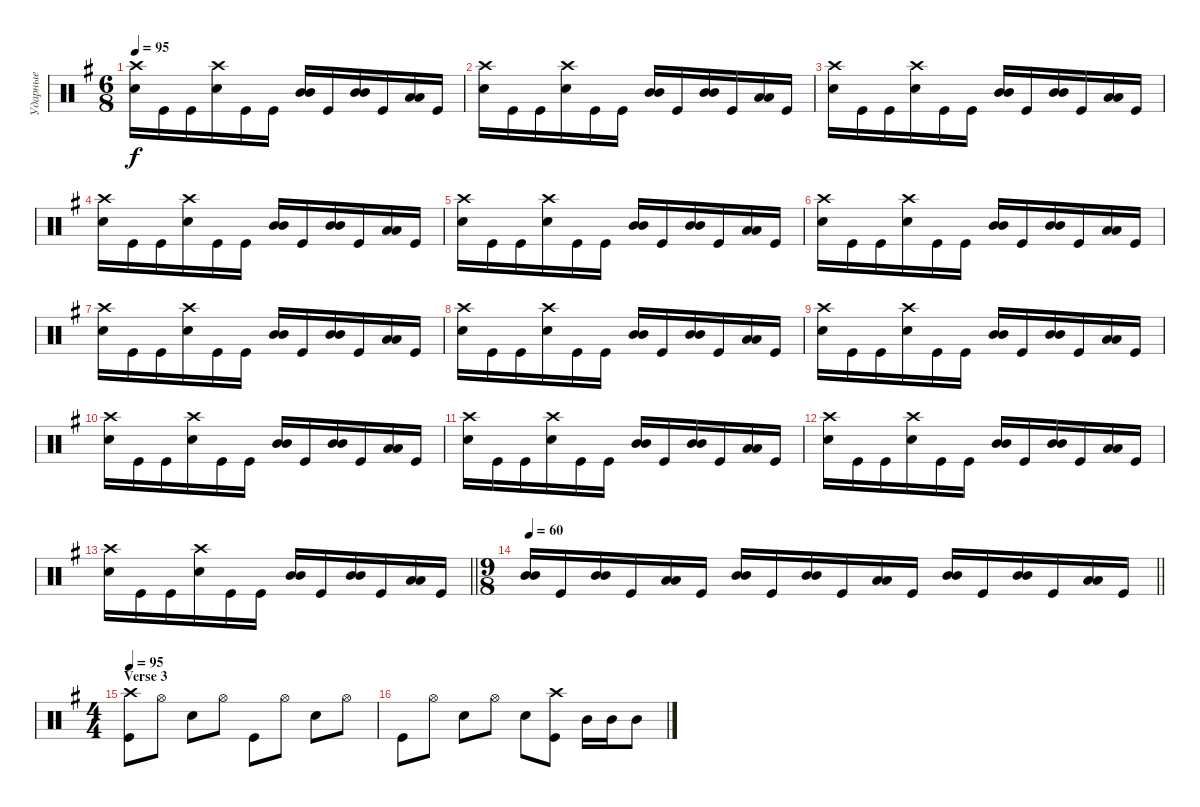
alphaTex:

\track ("Ударные" "Ударные") {instrument percussion}
\staff {score}
\articulation defaults
\ts (6 8)
\tempo 95
\clef neutral
\ks eminor
("Snare (hit) 2" "Crash high (hit)").16{dy f} "Kick (hit)".16 "Kick (hit)".16 ("Snare (hit) 2" "Crash high (hit)").16 "Kick (hit)".16 "Kick (hit)".16 ("Mid Tom (hit)" "Mid Tom (hit)").16{bd 240} "Kick (hit)".16 ("Mid Tom (hit)" "Mid Tom (hit)").16{bd 240} "Kick (hit)".16 ("Low Tom (hit)" "Low Tom (hit)").16{bd 240} "Kick (hit)".16 |
("Snare (hit) 2" "Crash high (hit)").16 "Kick (hit)".16 "Kick (hit)".16 ("Snare (hit) 2" "Crash high (hit)").16 "Kick (hit)".16 "Kick (hit)".16 ("Mid Tom (hit)" "Mid Tom (hit)").16{bd 240} "Kick (hit)".16 ("Mid Tom (hit)" "Mid Tom (hit)").16{bd 240} "Kick (hit)".16 ("Low Tom (hit)" "Low Tom (hit)").16{bd 240} "Kick (hit)".16 |
("Snare (hit) 2" "Crash high (hit)").16 "Kick (hit)".16 "Kick (hit)".16 ("Snare (hit) 2" "Crash high (hit)").16 "Kick (hit)".16 "Kick (hit)".16 ("Mid Tom (hit)" "Mid Tom (hit)").16{bd 240} "Kick (hit)".16 ("Mid Tom (hit)" "Mid Tom (hit)").16{bd 240} "Kick (hit)".16 ("Low Tom (hit)" "Low Tom (hit)").16{bd 240} "Kick (hit)".16 |
("Snare (hit) 2" "Crash high (hit)").16 "Kick (hit)".16 "Kick (hit)".16 ("Snare (hit) 2" "Crash high (hit)").16 "Kick (hit)".16 "Kick (hit)".16 ("Mid Tom (hit)" "Mid Tom (hit)").16{bd 240} "Kick (hit)".16 ("Mid Tom (hit)" "Mid Tom (hit)").16{bd 240} "Kick (hit)".16 ("Low Tom (hit)" "Low Tom (hit)").16{bd 240} "Kick (hit)".16 |
("Snare (hit) 2" "Crash high (hit)").16 "Kick (hit)".16 "Kick (hit)".16 ("Snare (hit) 2" "Crash high (hit)").16 "Kick (hit)".16 "Kick (hit)".16 ("Mid Tom (hit)" "Mid Tom (hit)").16{bd 240} "Kick (hit)".16 ("Mid Tom (hit)" "Mid Tom (hit)").16{bd 240} "Kick (hit)".16 ("Low Tom (hit)" "Low Tom (hit)").16{bd 240} "Kick (hit)".16 |
("Snare (hit) 2" "Crash high (hit)").16 "Kick (hit)".16 "Kick (hit)".16 ("Snare (hit) 2" "Crash high (hit)").16 "Kick (hit)".16 "Kick (hit)".16 ("Mid Tom (hit)" "Mid Tom (hit)").16{bd 240} "Kick (hit)".16 ("Mid Tom (hit)" "Mid Tom (hit)").16{bd 240} "Kick (hit)".16 ("Low Tom (hit)" "Low Tom (hit)").16{bd 240} "Kick (hit)".16 |
("Snare (hit) 2" "Crash high (hit)").16 "Kick (hit)".16 "Kick (hit)".16 ("Snare (hit) 2" "Crash high (hit)").16 "Kick (hit)".16 "Kick (hit)".16 ("Mid Tom (hit)" "Mid Tom (hit)").16{bd 240} "Kick (hit)".16 ("Mid Tom (hit)" "Mid Tom (hit)").16{bd 240} "Kick (hit)".16 ("Low Tom (hit)" "Low Tom (hit)").16{bd 240} "Kick (hit)".16 |
("Snare (hit) 2" "Crash high (hit)").16 "Kick (hit)".16 "Kick (hit)".16 ("Snare (hit) 2" "Crash high (hit)").16 "Kick (hit)".16 "Kick (hit)".16 ("Mid Tom (hit)" "Mid Tom (hit)").16{bd 240} "Kick (hit)".16 ("Mid Tom (hit)" "Mid Tom (hit)").16{bd 240} "Kick (hit)".16 ("Low Tom (hit)" "Low Tom (hit)").16{bd 240} "Kick (hit)".16 |
("Snare (hit) 2" "Crash high (hit)").16 "Kick (hit)".16 "Kick (hit)".16 ("Snare (hit) 2" "Crash high (hit)").16 "Kick (hit)".16 "Kick (hit)".16 ("Mid Tom (hit)" "Mid Tom (hit)").16{bd 240} "Kick (hit)".16 ("Mid Tom (hit)" "Mid Tom (hit)").16{bd 240} "Kick (hit)".16 ("Low Tom (hit)" "Low Tom (hit)").16{bd 240} "Kick (hit)".16 |
("Snare (hit) 2" "Crash high (hit)").16 "Kick (hit)".16 "Kick (hit)".16 ("Snare (hit) 2" "Crash high (hit)").16 "Kick (hit)".16 "Kick (hit)".16 ("Mid Tom (hit)" "Mid Tom (hit)").16{bd 240} "Kick (hit)".16 ("Mid Tom (hit)" "Mid Tom (hit)").16{bd 240} "Kick (hit)".16 ("Low Tom (hit)" "Low Tom (hit)").16{bd 240} "Kick (hit)".16 |
("Snare (hit) 2" "Crash high (hit)").16 "Kick (hit)".16 "Kick (hit)".16 ("Snare (hit) 2" "Crash high (hit)").16 "Kick (hit)".16 "Kick (hit)".16 ("Mid Tom (hit)" "Mid Tom (hit)").16{bd 240} "Kick (hit)".16 ("Mid Tom (hit)" "Mid Tom (hit)").16{bd 240} "Kick (hit)".16 ("Low Tom (hit)" "Low Tom (hit)").16{bd 240} "Kick (hit)".16 |
("Snare (hit) 2" "Crash high (hit)").16 "Kick (hit)".16 "Kick (hit)".16 ("Snare (hit) 2" "Crash high (hit)").16 "Kick (hit)".16 "Kick (hit)".16 ("Mid Tom (hit)" "Mid Tom (hit)").16{bd 240} "Kick (hit)".16 ("Mid Tom (hit)" "Mid Tom (hit)").16{bd 240} "Kick (hit)".16 ("Low Tom (hit)" "Low Tom (hit)").16{bd 240} "Kick (hit)".16 |
\barLineRight lightlight
("Snare (hit) 2" "Crash high (hit)").16 "Kick (hit)".16 "Kick (hit)".16 ("Snare (hit) 2" "Crash high (hit)").16 "Kick (hit)".16 "Kick (hit)".16 ("Mid Tom (hit)" "Mid Tom (hit)").16{bd 240} "Kick (hit)".16 ("Mid Tom (hit)" "Mid Tom (hit)").16{bd 240} "Kick (hit)".16 ("Low Tom (hit)" "Low Tom (hit)").16{bd 240} "Kick (hit)".16 |
\ts (9 8)
\tempo 60
\barLineRight lightlight
("Mid Tom (hit)" "Mid Tom (hit)").16{bd 240} "Kick (hit)".16 ("Mid Tom (hit)" "Mid Tom (hit)").16{bd 240} "Kick (hit)".16 ("Low Tom (hit)" "Low Tom (hit)").16{bd 240} "Kick (hit)".16 ("Mid Tom (hit)" "Mid Tom (hit)").16{bd 240} "Kick (hit)".16 ("Mid Tom (hit)" "Mid Tom (hit)").16{bd 240} "Kick (hit)".16 ("Low Tom (hit)" "Low Tom (hit)").16{bd 240} "Kick (hit)".16 ("Mid Tom (hit)" "Mid Tom (hit)").16{bd 240} "Kick (hit)".16 ("Mid Tom (hit)" "Mid Tom (hit)").16{bd 240} "Kick (hit)".16 ("Low Tom (hit)" "Low Tom (hit)").16{bd 240} "Kick (hit)".16 |
\ts (4 4)
\section ("" "Verse 3")
\tempo 95
("Kick (hit)" "Crash high (hit)").8 "Hi-Hat (open)".8 "Snare (hit) 2".8 "Hi-Hat (open)".8 "Kick (hit)".8 "Hi-Hat (open)".8 "Snare (hit) 2".8 "Hi-Hat (open)".8 |
"Kick (hit)".8 "Hi-Hat (open)".8 "Snare (hit) 2".8 "Hi-Hat (open)".8 "Snare (hit) 2".8 ("Kick (hit)" "Crash high (hit)").8 "Mid Tom (hit)".16 "Mid Tom (hit)".16 "Mid Tom (hit)".8
